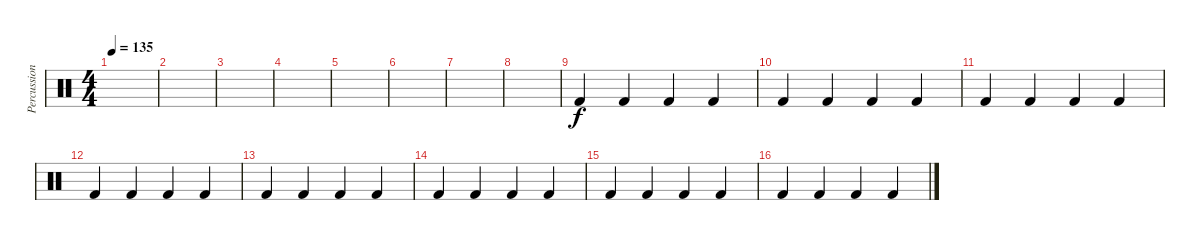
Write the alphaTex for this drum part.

\track ("Percussion" "Percussion") {instrument percussion}
\staff {score}
\articulation defaults
\ts (4 4)
\tempo 135
\clef neutral
\ks c
|
|
|
|
|
|
|
|
"Kick (hit) 2".4 "Kick (hit) 2".4 "Kick (hit) 2".4 "Kick (hit) 2".4 |
"Kick (hit) 2".4 "Kick (hit) 2".4 "Kick (hit) 2".4 "Kick (hit) 2".4 |
"Kick (hit) 2".4 "Kick (hit) 2".4 "Kick (hit) 2".4 "Kick (hit) 2".4 |
"Kick (hit) 2".4 "Kick (hit) 2".4 "Kick (hit) 2".4 "Kick (hit) 2".4 |
"Kick (hit) 2".4 "Kick (hit) 2".4 "Kick (hit) 2".4 "Kick (hit) 2".4 |
"Kick (hit) 2".4 "Kick (hit) 2".4 "Kick (hit) 2".4 "Kick (hit) 2".4 |
"Kick (hit) 2".4 "Kick (hit) 2".4 "Kick (hit) 2".4 "Kick (hit) 2".4 |
"Kick (hit) 2".4 "Kick (hit) 2".4 "Kick (hit) 2".4 "Kick (hit) 2".4
